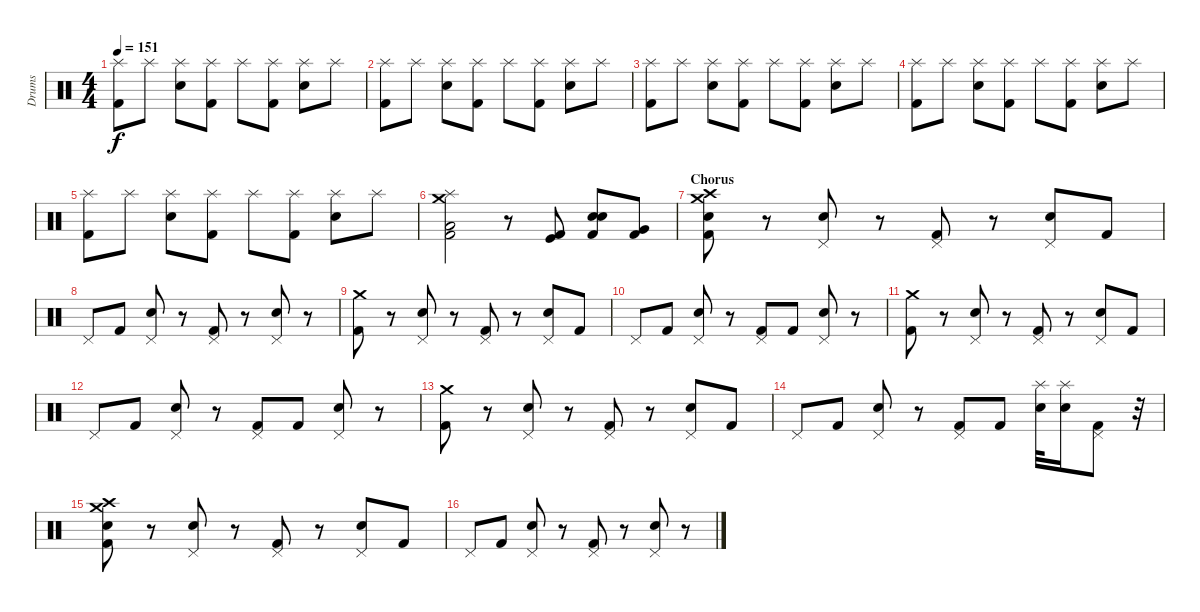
\track ("Drums" "Drums") {instrument percussion}
\staff {score}
\articulation defaults
\ts (4 4)
\tempo 151
\clef neutral
\ks c
("Kick (hit) 2" "Splash (hit)").8{dy f} "Splash (hit)".8 ("Splash (hit)" "Electric Snare (hit)").8 ("Kick (hit) 2" "Splash (hit)").8 "Splash (hit)".8 ("Kick (hit) 2" "Splash (hit)").8 ("Splash (hit)" "Electric Snare (hit)").8 "Splash (hit)".8 |
("Kick (hit) 2" "Splash (hit)").8 "Splash (hit)".8 ("Splash (hit)" "Electric Snare (hit)").8 ("Kick (hit) 2" "Splash (hit)").8 "Splash (hit)".8 ("Kick (hit) 2" "Splash (hit)").8 ("Splash (hit)" "Electric Snare (hit)").8 "Splash (hit)".8 |
("Kick (hit) 2" "Splash (hit)").8 "Splash (hit)".8 ("Splash (hit)" "Electric Snare (hit)").8 ("Kick (hit) 2" "Splash (hit)").8 "Splash (hit)".8 ("Kick (hit) 2" "Splash (hit)").8 ("Splash (hit)" "Electric Snare (hit)").8 "Splash (hit)".8 |
("Kick (hit) 2" "Splash (hit)").8 "Splash (hit)".8 ("Splash (hit)" "Electric Snare (hit)").8 ("Kick (hit) 2" "Splash (hit)").8 "Splash (hit)".8 ("Kick (hit) 2" "Splash (hit)").8 ("Splash (hit)" "Electric Snare (hit)").8 "Splash (hit)".8 |
("Kick (hit) 2" "Splash (hit)").8 "Splash (hit)".8 ("Splash (hit)" "Electric Snare (hit)").8 ("Kick (hit) 2" "Splash (hit)").8 "Splash (hit)".8 ("Kick (hit) 2" "Splash (hit)").8 ("Splash (hit)" "Electric Snare (hit)").8 "Splash (hit)".8 |
("Kick (hit) 2" "Low Floor Tom (hit)" "Splash (hit)" "Crash medium (hit)").2 r.8 ("Kick (hit)" "Kick (hit) 2").8 ("Snare (hit) 2" "Electric Snare (hit)" "Kick (hit) 2").8 ("Very Low Tom (hit)" "Kick (hit) 2").8 |
\section ("" "Chorus")
("Kick (hit) 2" "Crash medium (hit)" "Electric Snare (hit)" "Crash high (hit)").8 r.8 ("Pedal Hi-Hat (hit)" "Electric Snare (hit)").8 r.8 ("Pedal Hi-Hat (hit)" "Kick (hit) 2").8 r.8 ("Pedal Hi-Hat (hit)" "Electric Snare (hit)").8 "Kick (hit) 2".8 |
"Pedal Hi-Hat (hit)".8 "Kick (hit) 2".8 ("Pedal Hi-Hat (hit)" "Electric Snare (hit)").8 r.8 ("Pedal Hi-Hat (hit)" "Kick (hit) 2").8 r.8 ("Pedal Hi-Hat (hit)" "Electric Snare (hit)").8 r.8 |
("Kick (hit) 2" "Crash medium (hit)").8 r.8 ("Pedal Hi-Hat (hit)" "Electric Snare (hit)").8 r.8 ("Pedal Hi-Hat (hit)" "Kick (hit) 2").8 r.8 ("Pedal Hi-Hat (hit)" "Electric Snare (hit)").8 "Kick (hit) 2".8 |
"Pedal Hi-Hat (hit)".8 "Kick (hit) 2".8 ("Pedal Hi-Hat (hit)" "Electric Snare (hit)").8 r.8 ("Pedal Hi-Hat (hit)" "Kick (hit) 2").8 "Kick (hit) 2".8 ("Pedal Hi-Hat (hit)" "Electric Snare (hit)").8 r.8 |
("Kick (hit) 2" "Crash medium (hit)").8 r.8 ("Pedal Hi-Hat (hit)" "Electric Snare (hit)").8 r.8 ("Pedal Hi-Hat (hit)" "Kick (hit) 2").8 r.8 ("Pedal Hi-Hat (hit)" "Electric Snare (hit)").8 "Kick (hit) 2".8 |
"Pedal Hi-Hat (hit)".8 "Kick (hit) 2".8 ("Pedal Hi-Hat (hit)" "Electric Snare (hit)").8 r.8 ("Pedal Hi-Hat (hit)" "Kick (hit) 2").8 "Kick (hit) 2".8 ("Pedal Hi-Hat (hit)" "Electric Snare (hit)").8 r.8 |
("Kick (hit) 2" "Crash medium (hit)").8 r.8 ("Pedal Hi-Hat (hit)" "Electric Snare (hit)").8 r.8 ("Pedal Hi-Hat (hit)" "Kick (hit) 2").8 r.8 ("Pedal Hi-Hat (hit)" "Electric Snare (hit)").8 "Kick (hit) 2".8 |
"Pedal Hi-Hat (hit)".8 "Kick (hit) 2".8 ("Pedal Hi-Hat (hit)" "Electric Snare (hit)").8 r.8 ("Pedal Hi-Hat (hit)" "Kick (hit) 2").8 "Kick (hit) 2".8 ("Splash (hit)" "Electric Snare (hit)").32 ("Splash (hit)" "Electric Snare (hit)").16 ("Pedal Hi-Hat (hit)" "Kick (hit) 2").8 r.32 |
("Kick (hit) 2" "Crash medium (hit)" "Electric Snare (hit)" "Crash high (hit)").8 r.8 ("Pedal Hi-Hat (hit)" "Electric Snare (hit)").8 r.8 ("Pedal Hi-Hat (hit)" "Kick (hit) 2").8 r.8 ("Pedal Hi-Hat (hit)" "Electric Snare (hit)").8 "Kick (hit) 2".8 |
"Pedal Hi-Hat (hit)".8 "Kick (hit) 2".8 ("Pedal Hi-Hat (hit)" "Electric Snare (hit)").8 r.8 ("Pedal Hi-Hat (hit)" "Kick (hit) 2").8 r.8 ("Pedal Hi-Hat (hit)" "Electric Snare (hit)").8 r.8
